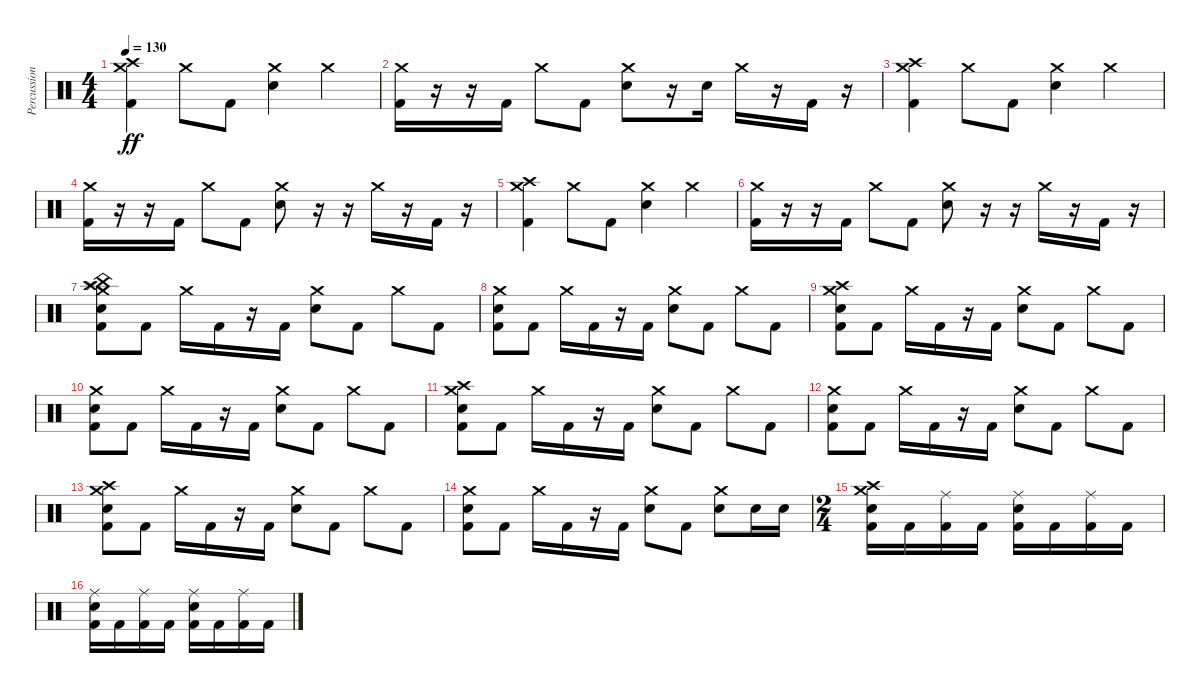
\track ("Percussion" "Percussion") {instrument percussion}
\staff {score}
\articulation defaults
\ts (4 4)
\tempo 130
\clef neutral
\ks c
("Crash medium (hit)" "Crash high (hit)" "Kick (hit) 2").4{dy ff} "Crash medium (hit)".8 "Kick (hit) 2".8 ("Crash medium (hit)" "Snare (hit) 2").4 "Crash medium (hit)".4 |
("Crash medium (hit)" "Kick (hit) 2").16 r.16 r.16 "Kick (hit) 2".16 "Crash medium (hit)".8 "Kick (hit) 2".8 ("Crash medium (hit)" "Snare (hit) 2").8 r.16 "Snare (hit) 2".16 "Crash medium (hit)".16 r.16 "Kick (hit) 2".16 r.16 |
("Crash medium (hit)" "Crash high (hit)" "Kick (hit) 2").4 "Crash medium (hit)".8 "Kick (hit) 2".8 ("Crash medium (hit)" "Snare (hit) 2").4 "Crash medium (hit)".4 |
("Crash medium (hit)" "Kick (hit) 2").16 r.16 r.16 "Kick (hit) 2".16 "Crash medium (hit)".8 "Kick (hit) 2".8 ("Crash medium (hit)" "Snare (hit) 2").8 r.16 r.16 "Crash medium (hit)".16 r.16 "Kick (hit) 2".16 r.16 |
("Crash medium (hit)" "Crash high (hit)" "Kick (hit) 2").4 "Crash medium (hit)".8 "Kick (hit) 2".8 ("Crash medium (hit)" "Snare (hit) 2").4 "Crash medium (hit)".4 |
("Crash medium (hit)" "Kick (hit) 2").16 r.16 r.16 "Kick (hit) 2".16 "Crash medium (hit)".8 "Kick (hit) 2".8 ("Crash medium (hit)" "Snare (hit) 2").8 r.16 r.16 "Crash medium (hit)".16 r.16 "Kick (hit) 2".16 r.16 |
("China (hit)" "Crash high (hit)" "Splash (hit)" "Crash medium (hit)" "Snare (hit) 2" "Kick (hit) 2").8 "Kick (hit) 2".8 "Crash medium (hit)".16 "Kick (hit) 2".16 r.16 "Kick (hit) 2".16 ("Crash medium (hit)" "Snare (hit) 2").8 "Kick (hit) 2".8 "Crash medium (hit)".8 "Kick (hit) 2".8 |
("Crash medium (hit)" "Snare (hit) 2" "Kick (hit) 2").8 "Kick (hit) 2".8 "Crash medium (hit)".16 "Kick (hit) 2".16 r.16 "Kick (hit) 2".16 ("Crash medium (hit)" "Snare (hit) 2").8 "Kick (hit) 2".8 "Crash medium (hit)".8 "Kick (hit) 2".8 |
("Crash medium (hit)" "Snare (hit) 2" "Crash high (hit)" "Kick (hit) 2").8 "Kick (hit) 2".8 "Crash medium (hit)".16 "Kick (hit) 2".16 r.16 "Kick (hit) 2".16 ("Crash medium (hit)" "Snare (hit) 2").8 "Kick (hit) 2".8 "Crash medium (hit)".8 "Kick (hit) 2".8 |
("Crash medium (hit)" "Snare (hit) 2" "Kick (hit) 2").8 "Kick (hit) 2".8 "Crash medium (hit)".16 "Kick (hit) 2".16 r.16 "Kick (hit) 2".16 ("Crash medium (hit)" "Snare (hit) 2").8 "Kick (hit) 2".8 "Crash medium (hit)".8 "Kick (hit) 2".8 |
("Crash medium (hit)" "Crash high (hit)" "Snare (hit) 2" "Kick (hit) 2").8 "Kick (hit) 2".8 "Crash medium (hit)".16 "Kick (hit) 2".16 r.16 "Kick (hit) 2".16 ("Crash medium (hit)" "Snare (hit) 2").8 "Kick (hit) 2".8 "Crash medium (hit)".8 "Kick (hit) 2".8 |
("Crash medium (hit)" "Snare (hit) 2" "Kick (hit) 2").8 "Kick (hit) 2".8 "Crash medium (hit)".16 "Kick (hit) 2".16 r.16 "Kick (hit) 2".16 ("Crash medium (hit)" "Snare (hit) 2").8 "Kick (hit) 2".8 "Crash medium (hit)".8 "Kick (hit) 2".8 |
("Crash medium (hit)" "Crash high (hit)" "Snare (hit) 2" "Kick (hit) 2").8 "Kick (hit) 2".8 "Crash medium (hit)".16 "Kick (hit) 2".16 r.16 "Kick (hit) 2".16 ("Crash medium (hit)" "Snare (hit) 2").8 "Kick (hit) 2".8 "Crash medium (hit)".8 "Kick (hit) 2".8 |
("Crash medium (hit)" "Snare (hit) 2" "Kick (hit) 2").8 "Kick (hit) 2".8 "Crash medium (hit)".16 "Kick (hit) 2".16 r.16 "Kick (hit) 2".16 ("Crash medium (hit)" "Snare (hit) 2").8 "Kick (hit) 2".8 ("Crash medium (hit)" "Snare (hit) 2").8 "Snare (hit) 2".16 "Snare (hit) 2".16 |
\ts (2 4)
("Crash medium (hit)" "Crash high (hit)" "Snare (hit) 2" "Kick (hit) 2").16 "Kick (hit) 2".16 ("Ride (middle)" "Kick (hit) 2").16 "Kick (hit) 2".16 ("Ride (middle)" "Snare (hit) 2" "Kick (hit) 2").16 "Kick (hit) 2".16 ("Ride (middle)" "Kick (hit) 2").16 "Kick (hit) 2".16 |
("Ride (middle)" "Snare (hit) 2" "Kick (hit) 2").16 "Kick (hit) 2".16 ("Ride (middle)" "Kick (hit) 2").16 "Kick (hit) 2".16 ("Ride (middle)" "Snare (hit) 2" "Kick (hit) 2").16 "Kick (hit) 2".16 ("Ride (middle)" "Kick (hit) 2").16 "Kick (hit) 2".16
